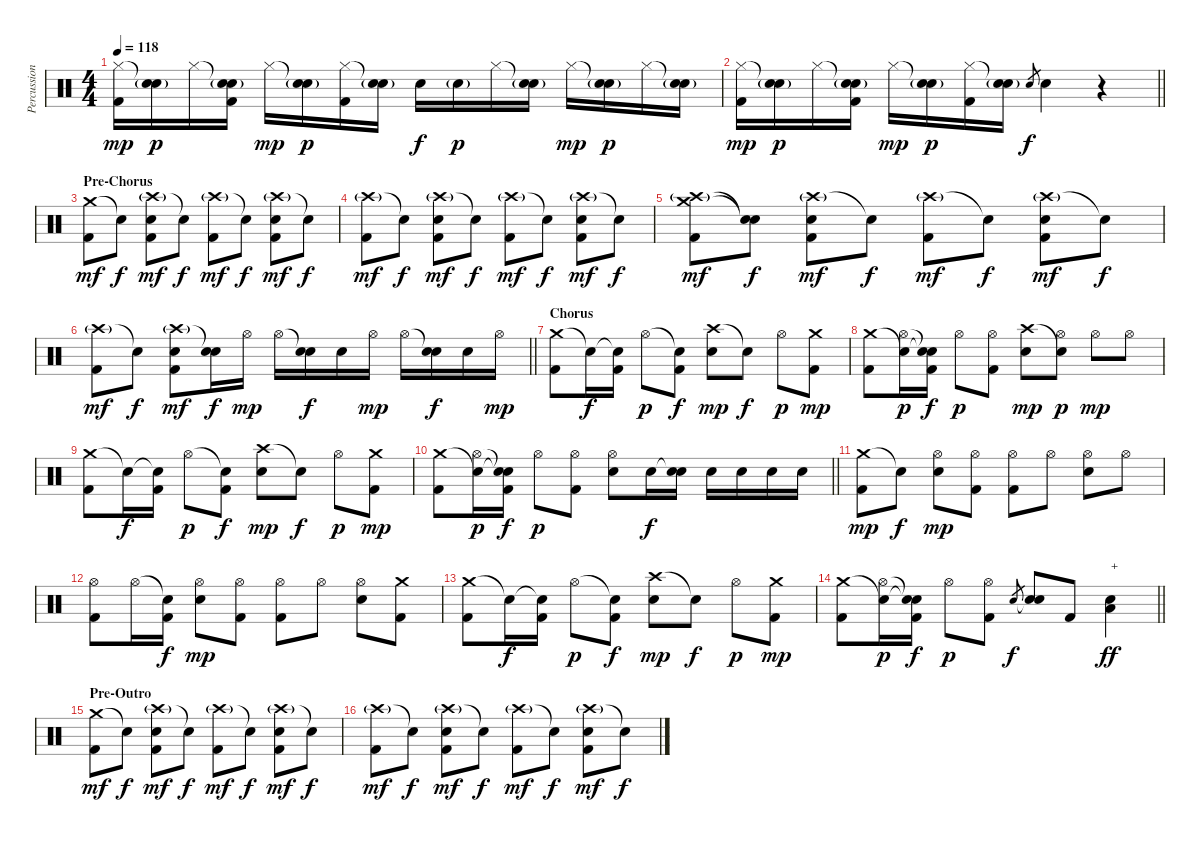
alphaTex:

\track ("Percussions" "Percussion") {instrument percussion}
\staff {score}
\articulation defaults
\ts (4 4)
\tempo 118
\clef neutral
\ks c
("Hi-Hat (closed)" "Kick (hit) 2").16{dy mp} ("Snare (hit)"{t} "Electric Snare (hit)"{g}).16{dy p} "Hi-Hat (closed)".16 ("Snare (hit)"{t} "Electric Snare (hit)"{g} "Kick (hit) 2").16 "Hi-Hat (closed)".16{dy mp} ("Snare (hit)"{t} "Electric Snare (hit)"{g}).16{dy p} ("Hi-Hat (closed)" "Kick (hit) 2").16 ("Snare (hit)"{t} "Electric Snare (hit)"{g}).16 "Electric Snare (hit)".16{dy f} "Electric Snare (hit)"{g}.16{dy p} "Hi-Hat (closed)".16 ("Snare (hit)"{t} "Electric Snare (hit)"{g}).16 "Hi-Hat (closed)".16{dy mp} ("Snare (hit)"{t} "Electric Snare (hit)"{g}).16{dy p} "Hi-Hat (closed)".16 ("Snare (hit)"{t} "Electric Snare (hit)"{g}).16 |
\barLineRight lightlight
("Hi-Hat (closed)" "Kick (hit) 2").16{dy mp} ("Snare (hit)"{t} "Electric Snare (hit)"{g}).16{dy p} "Hi-Hat (closed)".16 ("Snare (hit)"{t} "Electric Snare (hit)"{g} "Kick (hit) 2").16 "Hi-Hat (closed)".16{dy mp} ("Snare (hit)"{t} "Electric Snare (hit)"{g}).16{dy p} ("Hi-Hat (closed)" "Kick (hit) 2").16 ("Snare (hit)"{t} "Electric Snare (hit)"{g}).16 "Electric Snare (hit)".8{gr dy f} "Electric Snare (hit)".4 r.4 |
\section ("" "Pre-Chorus")
("Crash medium (hit)" "Kick (hit) 2").8{dy mf} "Snare (hit)"{t}.8{dy f} ("Crash high (hit)"{g} "Electric Snare (hit)" "Kick (hit) 2").8{dy mf} "Snare (hit)"{t}.8{dy f} ("Crash high (hit)"{g} "Kick (hit) 2").8{dy mf} "Snare (hit)"{t}.8{dy f} ("Crash high (hit)"{g} "Electric Snare (hit)" "Kick (hit) 2").8{dy mf} "Snare (hit)"{t}.8{dy f} |
("Crash high (hit)"{g} "Kick (hit) 2").8{dy mf} "Snare (hit)"{t}.8{dy f} ("Crash high (hit)"{g} "Electric Snare (hit)" "Kick (hit) 2").8{dy mf} "Snare (hit)"{t}.8{dy f} ("Crash high (hit)"{g} "Kick (hit) 2").8{dy mf} "Snare (hit)"{t}.8{dy f} ("Crash high (hit)"{g} "Electric Snare (hit)" "Kick (hit) 2").8{dy mf} "Snare (hit)"{t}.8{dy f} |
("Crash medium (hit)" "Crash high (hit)"{g} "Kick (hit) 2").8{dy mf} ("Snare (hit)"{t} "Snare (hit)"{t}).8{dy f} ("Crash high (hit)"{g} "Electric Snare (hit)" "Kick (hit) 2").8{dy mf} "Snare (hit)"{t}.8{dy f} ("Crash high (hit)"{g} "Kick (hit) 2").8{dy mf} "Snare (hit)"{t}.8{dy f} ("Crash high (hit)"{g} "Electric Snare (hit)" "Kick (hit) 2").8{dy mf} "Snare (hit)"{t}.8{dy f} |
\barLineRight lightlight
("Crash high (hit)"{g} "Kick (hit) 2").8{dy mf} "Snare (hit)"{t}.8{dy f} ("Crash high (hit)"{g} "Electric Snare (hit)" "Kick (hit) 2").8{dy mf} ("Snare (hit)"{t} "Electric Snare (hit)").16{dy f} "Hi-Hat (open)".16{dy mp} "Hi-Hat (open)".16 ("Snare (hit)"{t} "Electric Snare (hit)").16{dy f} "Electric Snare (hit)".16 "Hi-Hat (open)".16{dy mp} "Hi-Hat (open)".16 ("Snare (hit)"{t} "Electric Snare (hit)").16{dy f} "Electric Snare (hit)".16 "Hi-Hat (open)".16{dy mp} |
\section ("" "Chorus")
("Crash medium (hit)" "Kick (hit) 2").8 "Snare (hit)"{t}.16{dy f} ("Snare (hit)"{t} "Kick (hit) 2").16 "Hi-Hat (open)".8{dy p} ("Snare (hit)"{t} "Kick (hit) 2").8{dy f} ("Crash high (hit)" "Electric Snare (hit)").8{dy mp} "Snare (hit)"{t}.8{dy f} "Hi-Hat (open)".8{dy p} ("Crash medium (hit)" "Kick (hit) 2").8{dy mp} |
("Crash medium (hit)" "Kick (hit) 2").8 ("Snare (hit)"{t} "Hi-Hat (open)").16{dy p} ("Snare (hit)"{t} "Snare (hit)"{t} "Kick (hit) 2").16{dy f} "Hi-Hat (open)".8{dy p} ("Hi-Hat (open)" "Kick (hit) 2").8 ("Crash high (hit)" "Electric Snare (hit)").8{dy mp} ("Snare (hit)"{t} "Hi-Hat (open)").8{dy p} "Hi-Hat (open)".8{dy mp} "Hi-Hat (open)".8 |
("Crash medium (hit)" "Kick (hit) 2").8 "Snare (hit)"{t}.16{dy f} ("Snare (hit)"{t} "Kick (hit) 2").16 "Hi-Hat (open)".8{dy p} ("Snare (hit)"{t} "Kick (hit) 2").8{dy f} ("Crash high (hit)" "Electric Snare (hit)").8{dy mp} "Snare (hit)"{t}.8{dy f} "Hi-Hat (open)".8{dy p} ("Crash medium (hit)" "Kick (hit) 2").8{dy mp} |
\barLineRight lightlight
("Crash medium (hit)" "Kick (hit) 2").8 ("Snare (hit)"{t} "Hi-Hat (open)").16{dy p} ("Snare (hit)"{t} "Snare (hit)"{t} "Kick (hit) 2").16{dy f} "Hi-Hat (open)".8{dy p} ("Hi-Hat (open)" "Kick (hit) 2").8 ("Hi-Hat (open)" "Electric Snare (hit)").8 "Electric Snare (hit)".16{dy f} ("Snare (hit)"{t} "Electric Snare (hit)").16 "Electric Snare (hit)".16 "Electric Snare (hit)".16 "Electric Snare (hit)".16 "Electric Snare (hit)".16 |
("Crash medium (hit)" "Kick (hit) 2").8{dy mp} "Snare (hit)"{t}.8{dy f} ("Hi-Hat (open)" "Electric Snare (hit)").8{dy mp} ("Hi-Hat (open)" "Kick (hit) 2").8 ("Hi-Hat (open)" "Kick (hit) 2").8 "Hi-Hat (open)".8 ("Hi-Hat (open)" "Electric Snare (hit)").8 "Hi-Hat (open)".8 |
("Hi-Hat (open)" "Kick (hit) 2").8 "Hi-Hat (open)".16 ("Snare (hit)"{t} "Kick (hit) 2").16{dy f} ("Hi-Hat (open)" "Electric Snare (hit)").8{dy mp} ("Hi-Hat (open)" "Kick (hit) 2").8 ("Hi-Hat (open)" "Kick (hit) 2").8 "Hi-Hat (open)".8 ("Hi-Hat (open)" "Electric Snare (hit)").8 ("Crash medium (hit)" "Kick (hit) 2").8 |
("Crash medium (hit)" "Kick (hit) 2").8 "Snare (hit)"{t}.16{dy f} ("Snare (hit)"{t} "Kick (hit) 2").16 "Hi-Hat (open)".8{dy p} ("Snare (hit)"{t} "Kick (hit) 2").8{dy f} ("Crash high (hit)" "Electric Snare (hit)").8{dy mp} "Snare (hit)"{t}.8{dy f} "Hi-Hat (open)".8{dy p} ("Crash medium (hit)" "Kick (hit) 2").8{dy mp} |
\barLineRight lightlight
("Crash medium (hit)" "Kick (hit) 2").8 ("Snare (hit)"{t} "Hi-Hat (open)").16{dy p} ("Snare (hit)"{t} "Snare (hit)"{t} "Kick (hit) 2").16{dy f} "Hi-Hat (open)".8{dy p} ("Hi-Hat (open)" "Kick (hit) 2").8 "Electric Snare (hit)".8{gr dy f} ("Snare (hit)"{t} "Electric Snare (hit)").8 "Kick (hit) 2".8 ("Low Floor Tom (hit)" "Electric Snare (hit)").4{txt "+" dy ff} |
\section ("" "Pre-Outro")
("Crash medium (hit)" "Kick (hit) 2").8{dy mf} "Snare (hit)"{t}.8{dy f} ("Crash high (hit)"{g} "Electric Snare (hit)" "Kick (hit) 2").8{dy mf} "Snare (hit)"{t}.8{dy f} ("Crash high (hit)"{g} "Kick (hit) 2").8{dy mf} "Snare (hit)"{t}.8{dy f} ("Crash high (hit)"{g} "Electric Snare (hit)" "Kick (hit) 2").8{dy mf} "Snare (hit)"{t}.8{dy f} |
("Crash high (hit)"{g} "Kick (hit) 2").8{dy mf} "Snare (hit)"{t}.8{dy f} ("Crash high (hit)"{g} "Electric Snare (hit)" "Kick (hit) 2").8{dy mf} "Snare (hit)"{t}.8{dy f} ("Crash high (hit)"{g} "Kick (hit) 2").8{dy mf} "Snare (hit)"{t}.8{dy f} ("Crash high (hit)"{g} "Electric Snare (hit)" "Kick (hit) 2").8{dy mf} "Snare (hit)"{t}.8{dy f}
